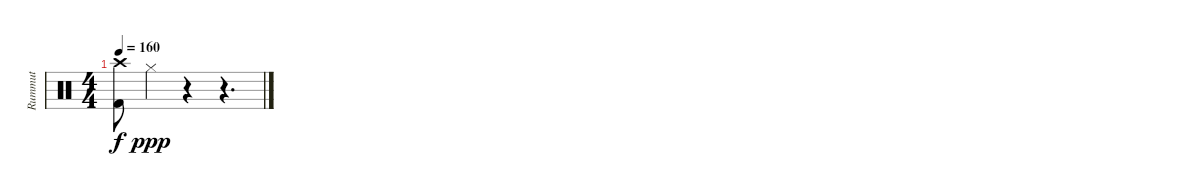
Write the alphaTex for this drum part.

\track ("Rummut" "Rummut") {instrument percussion}
\staff {score}
\articulation defaults
\ts (4 4)
\tempo 160
\clef neutral
\ks c
("Crash high (hit)" "Kick (hit) 2").8{dy f} "Hi-Hat (closed)".4{dy ppp} r.4 r.4{d}
